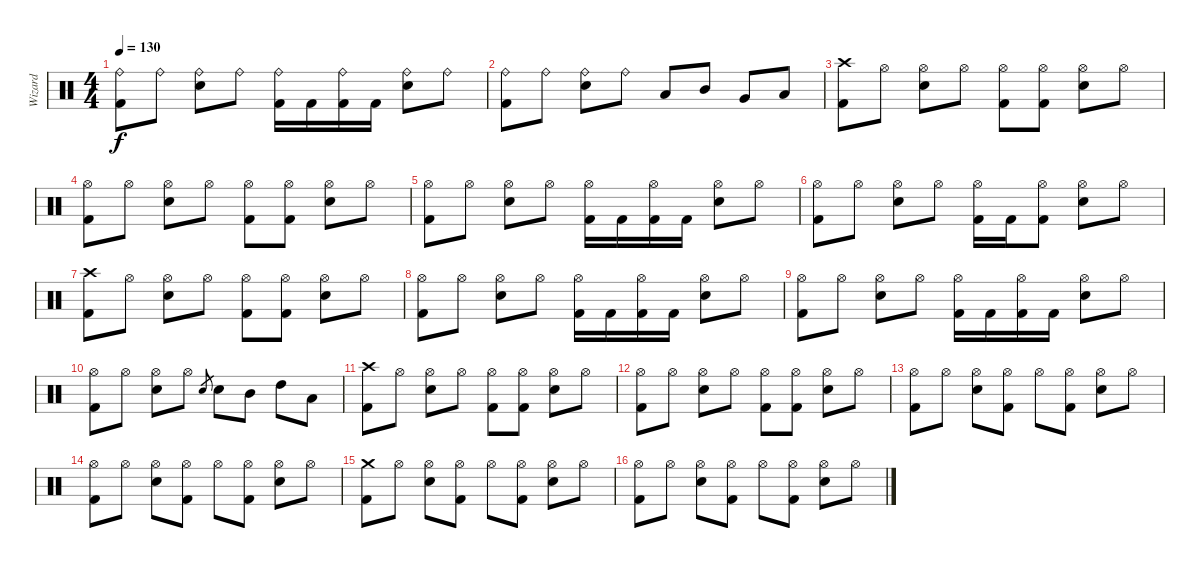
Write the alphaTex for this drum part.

\track ("Wizard" "Wizard") {instrument percussion}
\staff {score}
\articulation defaults
\ts (4 4)
\tempo 130
\clef neutral
\ks c
("Ride (bell)" "Kick (hit) 2").8{dy f} "Ride (bell)".8 ("Ride (bell)" "Snare (hit) 2").8 "Ride (bell)".8 ("Ride (bell)" "Kick (hit) 2").16 "Kick (hit) 2".16 ("Ride (bell)" "Kick (hit) 2").16 "Kick (hit) 2".16 ("Ride (bell)" "Snare (hit) 2").8 "Ride (bell)".8 |
("Ride (bell)" "Kick (hit) 2").8 "Ride (bell)".8 ("Ride (bell)" "Snare (hit) 2").8 "Ride (bell)".8 "Low Tom (hit)".8 "Mid Tom (hit)".8 "Very Low Tom (hit)".8 "Low Tom (hit)".8 |
("Crash high (hit)" "Kick (hit) 2").8 "Hi-Hat (open)".8 ("Hi-Hat (open)" "Snare (hit) 2").8 "Hi-Hat (open)".8 ("Hi-Hat (open)" "Kick (hit) 2").8 ("Hi-Hat (open)" "Kick (hit) 2").8 ("Hi-Hat (open)" "Snare (hit) 2").8 "Hi-Hat (open)".8 |
("Hi-Hat (open)" "Kick (hit) 2").8 "Hi-Hat (open)".8 ("Hi-Hat (open)" "Snare (hit) 2").8 "Hi-Hat (open)".8 ("Hi-Hat (open)" "Kick (hit) 2").8 ("Hi-Hat (open)" "Kick (hit) 2").8 ("Hi-Hat (open)" "Snare (hit) 2").8 "Hi-Hat (open)".8 |
("Hi-Hat (open)" "Kick (hit) 2").8 "Hi-Hat (open)".8 ("Hi-Hat (open)" "Snare (hit) 2").8 "Hi-Hat (open)".8 ("Hi-Hat (open)" "Kick (hit) 2").16 "Kick (hit) 2".16 ("Hi-Hat (open)" "Kick (hit) 2").16 "Kick (hit) 2".16 ("Hi-Hat (open)" "Snare (hit) 2").8 "Hi-Hat (open)".8 |
("Hi-Hat (open)" "Kick (hit) 2").8 "Hi-Hat (open)".8 ("Hi-Hat (open)" "Snare (hit) 2").8 "Hi-Hat (open)".8 ("Hi-Hat (open)" "Kick (hit) 2").16 "Kick (hit) 2".16 ("Hi-Hat (open)" "Kick (hit) 2").8 ("Hi-Hat (open)" "Snare (hit) 2").8 "Hi-Hat (open)".8 |
("Crash high (hit)" "Kick (hit) 2").8 "Hi-Hat (open)".8 ("Hi-Hat (open)" "Snare (hit) 2").8 "Hi-Hat (open)".8 ("Hi-Hat (open)" "Kick (hit) 2").8 ("Hi-Hat (open)" "Kick (hit) 2").8 ("Hi-Hat (open)" "Snare (hit) 2").8 "Hi-Hat (open)".8 |
("Hi-Hat (open)" "Kick (hit) 2").8 "Hi-Hat (open)".8 ("Hi-Hat (open)" "Snare (hit) 2").8 "Hi-Hat (open)".8 ("Hi-Hat (open)" "Kick (hit) 2").16 "Kick (hit) 2".16 ("Hi-Hat (open)" "Kick (hit) 2").16 "Kick (hit) 2".16 ("Hi-Hat (open)" "Snare (hit) 2").8 "Hi-Hat (open)".8 |
("Hi-Hat (open)" "Kick (hit) 2").8 "Hi-Hat (open)".8 ("Hi-Hat (open)" "Snare (hit) 2").8 "Hi-Hat (open)".8 ("Hi-Hat (open)" "Kick (hit) 2").16 "Kick (hit) 2".16 ("Hi-Hat (open)" "Kick (hit) 2").16 "Kick (hit) 2".16 ("Hi-Hat (open)" "Snare (hit) 2").8 "Hi-Hat (open)".8 |
("Hi-Hat (open)" "Kick (hit) 2").8 "Hi-Hat (open)".8 ("Hi-Hat (open)" "Snare (hit) 2").8 "Hi-Hat (open)".8 "Snare (hit) 2".8{gr} "Snare (hit) 2".8 "Mid Tom (hit)".8 "High Tom (hit)".8 "Low Tom (hit)".8 |
("Crash high (hit)" "Kick (hit) 2").8 "Hi-Hat (open)".8 ("Hi-Hat (open)" "Snare (hit) 2").8 "Hi-Hat (open)".8 ("Hi-Hat (open)" "Kick (hit) 2").8 ("Hi-Hat (open)" "Kick (hit) 2").8 ("Hi-Hat (open)" "Snare (hit) 2").8 "Hi-Hat (open)".8 |
("Hi-Hat (open)" "Kick (hit) 2").8 "Hi-Hat (open)".8 ("Hi-Hat (open)" "Snare (hit) 2").8 "Hi-Hat (open)".8 ("Hi-Hat (open)" "Kick (hit) 2").8 ("Hi-Hat (open)" "Kick (hit) 2").8 ("Hi-Hat (open)" "Snare (hit) 2").8 "Hi-Hat (open)".8 |
("Hi-Hat (open)" "Kick (hit) 2").8 "Hi-Hat (open)".8 ("Hi-Hat (open)" "Snare (hit) 2").8 ("Hi-Hat (open)" "Kick (hit) 2").8 "Hi-Hat (open)".8 ("Hi-Hat (open)" "Kick (hit) 2").8 ("Hi-Hat (open)" "Snare (hit) 2").8 "Hi-Hat (open)".8 |
("Hi-Hat (open)" "Kick (hit) 2").8 "Hi-Hat (open)".8 ("Hi-Hat (open)" "Snare (hit) 2").8 ("Hi-Hat (open)" "Kick (hit) 2").8 "Hi-Hat (open)".8 ("Hi-Hat (open)" "Kick (hit) 2").8 ("Hi-Hat (open)" "Snare (hit) 2").8 "Hi-Hat (open)".8 |
("Crash medium (hit)" "Kick (hit) 2").8 "Hi-Hat (open)".8 ("Hi-Hat (open)" "Snare (hit) 2").8 ("Hi-Hat (open)" "Kick (hit) 2").8 "Hi-Hat (open)".8 ("Hi-Hat (open)" "Kick (hit) 2").8 ("Hi-Hat (open)" "Snare (hit) 2").8 "Hi-Hat (open)".8 |
("Hi-Hat (open)" "Kick (hit) 2").8 "Hi-Hat (open)".8 ("Hi-Hat (open)" "Snare (hit) 2").8 ("Hi-Hat (open)" "Kick (hit) 2").8 "Hi-Hat (open)".8 ("Hi-Hat (open)" "Kick (hit) 2").8 ("Hi-Hat (open)" "Snare (hit) 2").8 "Hi-Hat (open)".8
